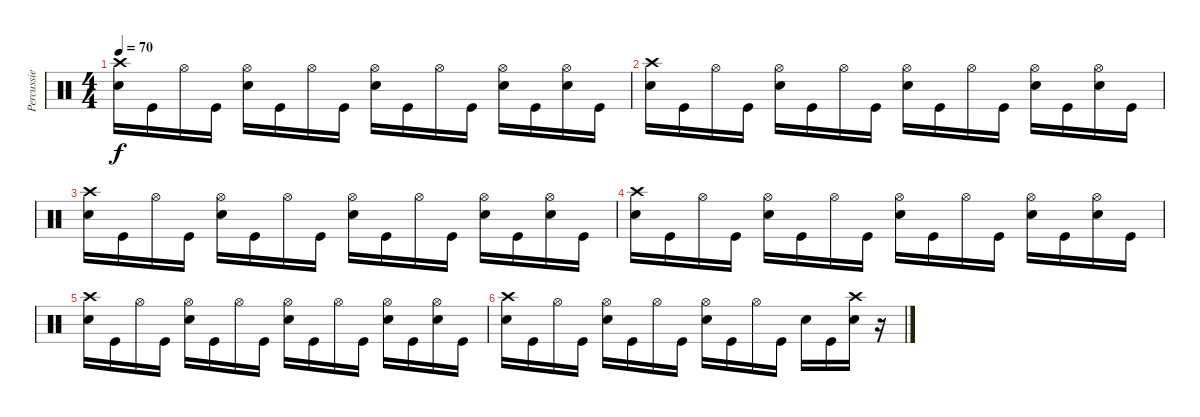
\track ("Percussie" "Percussie") {instrument percussion}
\staff {score}
\articulation defaults
\ts (4 4)
\tempo 70
\clef neutral
\ks c
("Crash high (hit)" "Snare (hit) 2").16{dy f} "Kick (hit)".16 "Hi-Hat (open)".16 "Kick (hit)".16 ("Hi-Hat (open)" "Snare (hit) 2").16 "Kick (hit)".16 "Hi-Hat (open)".16 "Kick (hit)".16 ("Hi-Hat (open)" "Snare (hit) 2").16 "Kick (hit)".16 "Hi-Hat (open)".16 "Kick (hit)".16 ("Hi-Hat (open)" "Snare (hit) 2").16 "Kick (hit)".16 ("Hi-Hat (open)" "Snare (hit) 2").16 "Kick (hit)".16 |
("Crash high (hit)" "Snare (hit) 2").16 "Kick (hit)".16 "Hi-Hat (open)".16 "Kick (hit)".16 ("Hi-Hat (open)" "Snare (hit) 2").16 "Kick (hit)".16 "Hi-Hat (open)".16 "Kick (hit)".16 ("Hi-Hat (open)" "Snare (hit) 2").16 "Kick (hit)".16 "Hi-Hat (open)".16 "Kick (hit)".16 ("Hi-Hat (open)" "Snare (hit) 2").16 "Kick (hit)".16 ("Hi-Hat (open)" "Snare (hit) 2").16 "Kick (hit)".16 |
("Crash high (hit)" "Snare (hit) 2").16 "Kick (hit)".16 "Hi-Hat (open)".16 "Kick (hit)".16 ("Hi-Hat (open)" "Snare (hit) 2").16 "Kick (hit)".16 "Hi-Hat (open)".16 "Kick (hit)".16 ("Hi-Hat (open)" "Snare (hit) 2").16 "Kick (hit)".16 "Hi-Hat (open)".16 "Kick (hit)".16 ("Hi-Hat (open)" "Snare (hit) 2").16 "Kick (hit)".16 ("Hi-Hat (open)" "Snare (hit) 2").16 "Kick (hit)".16 |
("Crash high (hit)" "Snare (hit) 2").16 "Kick (hit)".16 "Hi-Hat (open)".16 "Kick (hit)".16 ("Hi-Hat (open)" "Snare (hit) 2").16 "Kick (hit)".16 "Hi-Hat (open)".16 "Kick (hit)".16 ("Hi-Hat (open)" "Snare (hit) 2").16 "Kick (hit)".16 "Hi-Hat (open)".16 "Kick (hit)".16 ("Hi-Hat (open)" "Snare (hit) 2").16 "Kick (hit)".16 ("Hi-Hat (open)" "Snare (hit) 2").16 "Kick (hit)".16 |
("Crash high (hit)" "Snare (hit) 2").16 "Kick (hit)".16 "Hi-Hat (open)".16 "Kick (hit)".16 ("Hi-Hat (open)" "Snare (hit) 2").16 "Kick (hit)".16 "Hi-Hat (open)".16 "Kick (hit)".16 ("Hi-Hat (open)" "Snare (hit) 2").16 "Kick (hit)".16 "Hi-Hat (open)".16 "Kick (hit)".16 ("Hi-Hat (open)" "Snare (hit) 2").16 "Kick (hit)".16 ("Hi-Hat (open)" "Snare (hit) 2").16 "Kick (hit)".16 |
("Crash high (hit)" "Snare (hit) 2").16 "Kick (hit)".16 "Hi-Hat (open)".16 "Kick (hit)".16 ("Hi-Hat (open)" "Snare (hit) 2").16 "Kick (hit)".16 "Hi-Hat (open)".16 "Kick (hit)".16 ("Hi-Hat (open)" "Snare (hit) 2").16 "Kick (hit)".16 "Hi-Hat (open)".16 "Kick (hit)".16 "Snare (hit) 2".16 "Kick (hit)".16 ("Crash high (hit)" "Snare (hit) 2").16 r.16
